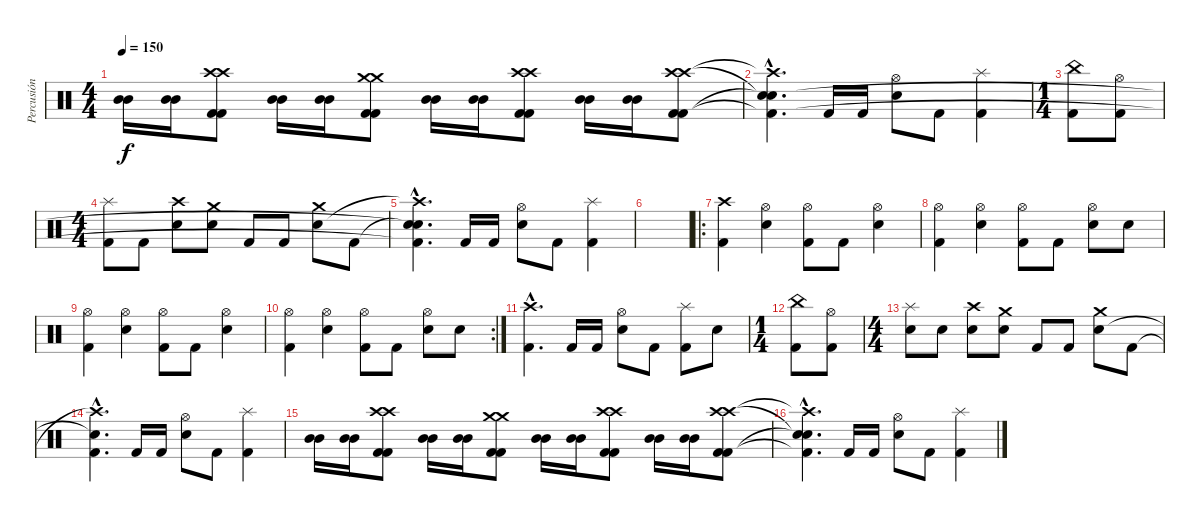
\track ("Percusión" "Percusión") {instrument percussion}
\staff {score}
\articulation defaults
\ts (4 4)
\tempo 150
\clef neutral
\ks c
("Mid Tom (hit)" "Mid Tom (hit)").16{dy f} ("Mid Tom (hit)" "Mid Tom (hit)").16 ("Crash high (hit)" "Crash high (hit)" "Kick (hit) 2" "Kick (hit) 2").8 ("Mid Tom (hit)" "Mid Tom (hit)").16 ("Mid Tom (hit)" "Mid Tom (hit)").16 ("Crash medium (hit)" "Crash medium (hit)" "Kick (hit) 2" "Kick (hit) 2").8 ("Mid Tom (hit)" "Mid Tom (hit)").16 ("Mid Tom (hit)" "Mid Tom (hit)").16 ("Crash high (hit)" "Crash high (hit)" "Kick (hit) 2" "Kick (hit) 2").8 ("Mid Tom (hit)" "Mid Tom (hit)").16 ("Mid Tom (hit)" "Mid Tom (hit)").16 ("Crash high (hit)" "Crash high (hit)" "Kick (hit) 2" "Kick (hit) 2").8 |
("Snare (hit)"{hac t} "Crash high (hit)"{hac t} "Snare (hit)"{hac t} "Kick (hit) 2"{hac t}).4{d} "Kick (hit) 2".16 "Kick (hit) 2".16 ("Hi-Hat (open)" "Electric Snare (hit)").8 "Kick (hit) 2".8 ("Splash (hit)" "Kick (hit) 2").4 |
\ts (1 4)
("China (hit)" "Kick (hit) 2").8 ("Hi-Hat (open)" "Kick (hit) 2").8 |
\ts (4 4)
("Splash (hit)" "Kick (hit) 2").8 "Kick (hit) 2".8 ("Crash high (hit)" "Electric Snare (hit)").8 ("Crash medium (hit)" "Electric Snare (hit)").8 "Kick (hit) 2".8 "Kick (hit) 2".8 ("Crash medium (hit)" "Electric Snare (hit)").8 "Kick (hit) 2".8 |
("Snare (hit)"{hac t} "Crash high (hit)"{hac t} "Snare (hit)"{hac t} "Kick (hit) 2"{hac t}).4{d} "Kick (hit) 2".16 "Kick (hit) 2".16 ("Hi-Hat (open)" "Electric Snare (hit)").8 "Kick (hit) 2".8 ("Splash (hit)" "Kick (hit) 2").4 |
|
\ro
("Crash high (hit)" "Kick (hit) 2").4 ("Hi-Hat (open)" "Electric Snare (hit)").4 ("Hi-Hat (open)" "Kick (hit) 2").8 "Kick (hit) 2".8 ("Hi-Hat (open)" "Electric Snare (hit)").4 |
("Hi-Hat (open)" "Kick (hit) 2").4 ("Hi-Hat (open)" "Electric Snare (hit)").4 ("Hi-Hat (open)" "Kick (hit) 2").8 "Kick (hit) 2".8 ("Hi-Hat (open)" "Electric Snare (hit)").8 "Electric Snare (hit)".8 |
("Hi-Hat (open)" "Kick (hit) 2").4 ("Hi-Hat (open)" "Electric Snare (hit)").4 ("Hi-Hat (open)" "Kick (hit) 2").8 "Kick (hit) 2".8 ("Hi-Hat (open)" "Electric Snare (hit)").4 |
\rc 2
("Hi-Hat (open)" "Kick (hit) 2").4 ("Hi-Hat (open)" "Electric Snare (hit)").4 ("Hi-Hat (open)" "Kick (hit) 2").8 "Kick (hit) 2".8 ("Hi-Hat (open)" "Electric Snare (hit)").8 "Electric Snare (hit)".8 |
("Crash high (hit)"{hac} "Kick (hit) 2"{hac}).4{d} "Kick (hit) 2".16 "Kick (hit) 2".16 ("Hi-Hat (open)" "Electric Snare (hit)").8 "Kick (hit) 2".8 ("Splash (hit)" "Kick (hit) 2").8 "Electric Snare (hit)".8 |
\ts (1 4)
("China (hit)" "Kick (hit) 2").8 ("Hi-Hat (open)" "Kick (hit) 2").8 |
\ts (4 4)
("Splash (hit)" "Electric Snare (hit)").8 "Electric Snare (hit)".8 ("Crash high (hit)" "Electric Snare (hit)").8 ("Crash medium (hit)" "Electric Snare (hit)").8 "Kick (hit) 2".8 "Kick (hit) 2".8 ("Crash medium (hit)" "Electric Snare (hit)").8 "Kick (hit) 2".8 |
("Crash high (hit)"{hac t} "Snare (hit)"{hac t} "Kick (hit) 2"{hac}).4{d} "Kick (hit) 2".16 "Kick (hit) 2".16 ("Hi-Hat (open)" "Electric Snare (hit)").8 "Kick (hit) 2".8 ("Splash (hit)" "Kick (hit) 2").4 |
("Mid Tom (hit)" "Mid Tom (hit)").16 ("Mid Tom (hit)" "Mid Tom (hit)").16 ("Crash high (hit)" "Crash high (hit)" "Kick (hit) 2" "Kick (hit) 2").8 ("Mid Tom (hit)" "Mid Tom (hit)").16 ("Mid Tom (hit)" "Mid Tom (hit)").16 ("Crash medium (hit)" "Crash medium (hit)" "Kick (hit) 2" "Kick (hit) 2").8 ("Mid Tom (hit)" "Mid Tom (hit)").16 ("Mid Tom (hit)" "Mid Tom (hit)").16 ("Crash high (hit)" "Crash high (hit)" "Kick (hit) 2" "Kick (hit) 2").8 ("Mid Tom (hit)" "Mid Tom (hit)").16 ("Mid Tom (hit)" "Mid Tom (hit)").16 ("Crash high (hit)" "Crash high (hit)" "Kick (hit) 2" "Kick (hit) 2").8 |
("Snare (hit)"{hac t} "Crash high (hit)"{hac t} "Snare (hit)"{hac t} "Kick (hit) 2"{hac t}).4{d} "Kick (hit) 2".16 "Kick (hit) 2".16 ("Hi-Hat (open)" "Electric Snare (hit)").8 "Kick (hit) 2".8 ("Splash (hit)" "Kick (hit) 2").4
